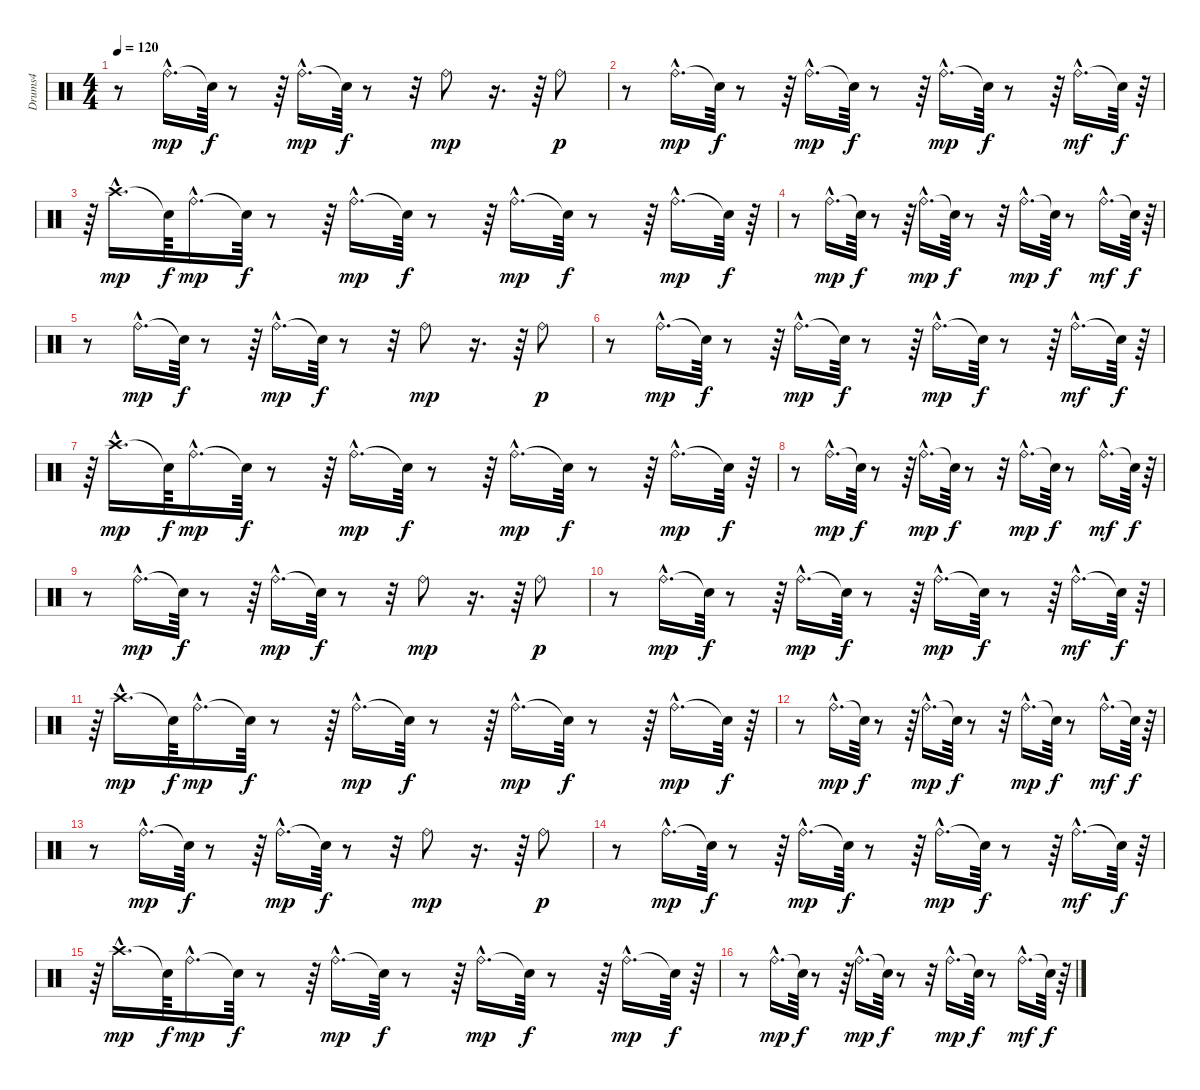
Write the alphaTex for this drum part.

\track ("Drums4" "Drums4") {instrument percussion}
\staff {score}
\articulation defaults
\ts (4 4)
\tempo 120
\clef neutral
\ks c
r.8{dy f} "Ride (bell)"{hac}.16{d dy mp} "Snare (hit)"{t}.64{dy f} r.8 r.64 "Ride (bell)"{hac}.16{d dy mp} "Snare (hit)"{t}.64{dy f} r.8 r.32 "Ride (bell)".8{dy mp} r.16{d} r.64 "Ride (bell)".8{dy p} |
r.8 "Ride (bell)"{hac}.16{d dy mp} "Snare (hit)"{t}.64{dy f} r.8 r.64 "Ride (bell)"{hac}.16{d dy mp} "Snare (hit)"{t}.64{dy f} r.8 r.64 "Ride (bell)"{hac}.16{d dy mp} "Snare (hit)"{t}.64{dy f} r.8 r.64 "Ride (bell)"{hac}.16{d dy mf} "Snare (hit)"{t}.64{dy f} r.64 |
r.64 "Crash high (hit)"{hac}.16{d dy mp} "Snare (hit)"{t}.64{dy f} "Ride (bell)"{hac}.16{d dy mp} "Snare (hit)"{t}.64{dy f} r.8 r.64 "Ride (bell)"{hac}.16{d dy mp} "Snare (hit)"{t}.64{dy f} r.8 r.64 "Ride (bell)"{hac}.16{d dy mp} "Snare (hit)"{t}.64{dy f} r.8 r.64 "Ride (bell)"{hac}.16{d dy mp} "Snare (hit)"{t}.64{dy f} r.64 |
r.8 "Ride (bell)"{hac}.16{d dy mp} "Snare (hit)"{t}.64{dy f} r.8 r.64 "Ride (bell)"{hac}.16{d dy mp} "Snare (hit)"{t}.64{dy f} r.8 r.32 "Ride (bell)"{hac}.16{d dy mp} "Snare (hit)"{t}.64{dy f} r.8 "Ride (bell)"{hac}.16{d dy mf} "Snare (hit)"{t}.64{dy f} r.64 |
r.8 "Ride (bell)"{hac}.16{d dy mp} "Snare (hit)"{t}.64{dy f} r.8 r.64 "Ride (bell)"{hac}.16{d dy mp} "Snare (hit)"{t}.64{dy f} r.8 r.32 "Ride (bell)".8{dy mp} r.16{d} r.64 "Ride (bell)".8{dy p} |
r.8 "Ride (bell)"{hac}.16{d dy mp} "Snare (hit)"{t}.64{dy f} r.8 r.64 "Ride (bell)"{hac}.16{d dy mp} "Snare (hit)"{t}.64{dy f} r.8 r.64 "Ride (bell)"{hac}.16{d dy mp} "Snare (hit)"{t}.64{dy f} r.8 r.64 "Ride (bell)"{hac}.16{d dy mf} "Snare (hit)"{t}.64{dy f} r.64 |
r.64 "Crash high (hit)"{hac}.16{d dy mp} "Snare (hit)"{t}.64{dy f} "Ride (bell)"{hac}.16{d dy mp} "Snare (hit)"{t}.64{dy f} r.8 r.64 "Ride (bell)"{hac}.16{d dy mp} "Snare (hit)"{t}.64{dy f} r.8 r.64 "Ride (bell)"{hac}.16{d dy mp} "Snare (hit)"{t}.64{dy f} r.8 r.64 "Ride (bell)"{hac}.16{d dy mp} "Snare (hit)"{t}.64{dy f} r.64 |
r.8 "Ride (bell)"{hac}.16{d dy mp} "Snare (hit)"{t}.64{dy f} r.8 r.64 "Ride (bell)"{hac}.16{d dy mp} "Snare (hit)"{t}.64{dy f} r.8 r.32 "Ride (bell)"{hac}.16{d dy mp} "Snare (hit)"{t}.64{dy f} r.8 "Ride (bell)"{hac}.16{d dy mf} "Snare (hit)"{t}.64{dy f} r.64 |
r.8 "Ride (bell)"{hac}.16{d dy mp} "Snare (hit)"{t}.64{dy f} r.8 r.64 "Ride (bell)"{hac}.16{d dy mp} "Snare (hit)"{t}.64{dy f} r.8 r.32 "Ride (bell)".8{dy mp} r.16{d} r.64 "Ride (bell)".8{dy p} |
r.8 "Ride (bell)"{hac}.16{d dy mp} "Snare (hit)"{t}.64{dy f} r.8 r.64 "Ride (bell)"{hac}.16{d dy mp} "Snare (hit)"{t}.64{dy f} r.8 r.64 "Ride (bell)"{hac}.16{d dy mp} "Snare (hit)"{t}.64{dy f} r.8 r.64 "Ride (bell)"{hac}.16{d dy mf} "Snare (hit)"{t}.64{dy f} r.64 |
r.64 "Crash high (hit)"{hac}.16{d dy mp} "Snare (hit)"{t}.64{dy f} "Ride (bell)"{hac}.16{d dy mp} "Snare (hit)"{t}.64{dy f} r.8 r.64 "Ride (bell)"{hac}.16{d dy mp} "Snare (hit)"{t}.64{dy f} r.8 r.64 "Ride (bell)"{hac}.16{d dy mp} "Snare (hit)"{t}.64{dy f} r.8 r.64 "Ride (bell)"{hac}.16{d dy mp} "Snare (hit)"{t}.64{dy f} r.64 |
r.8 "Ride (bell)"{hac}.16{d dy mp} "Snare (hit)"{t}.64{dy f} r.8 r.64 "Ride (bell)"{hac}.16{d dy mp} "Snare (hit)"{t}.64{dy f} r.8 r.32 "Ride (bell)"{hac}.16{d dy mp} "Snare (hit)"{t}.64{dy f} r.8 "Ride (bell)"{hac}.16{d dy mf} "Snare (hit)"{t}.64{dy f} r.64 |
r.8 "Ride (bell)"{hac}.16{d dy mp} "Snare (hit)"{t}.64{dy f} r.8 r.64 "Ride (bell)"{hac}.16{d dy mp} "Snare (hit)"{t}.64{dy f} r.8 r.32 "Ride (bell)".8{dy mp} r.16{d} r.64 "Ride (bell)".8{dy p} |
r.8 "Ride (bell)"{hac}.16{d dy mp} "Snare (hit)"{t}.64{dy f} r.8 r.64 "Ride (bell)"{hac}.16{d dy mp} "Snare (hit)"{t}.64{dy f} r.8 r.64 "Ride (bell)"{hac}.16{d dy mp} "Snare (hit)"{t}.64{dy f} r.8 r.64 "Ride (bell)"{hac}.16{d dy mf} "Snare (hit)"{t}.64{dy f} r.64 |
r.64 "Crash high (hit)"{hac}.16{d dy mp} "Snare (hit)"{t}.64{dy f} "Ride (bell)"{hac}.16{d dy mp} "Snare (hit)"{t}.64{dy f} r.8 r.64 "Ride (bell)"{hac}.16{d dy mp} "Snare (hit)"{t}.64{dy f} r.8 r.64 "Ride (bell)"{hac}.16{d dy mp} "Snare (hit)"{t}.64{dy f} r.8 r.64 "Ride (bell)"{hac}.16{d dy mp} "Snare (hit)"{t}.64{dy f} r.64 |
r.8 "Ride (bell)"{hac}.16{d dy mp} "Snare (hit)"{t}.64{dy f} r.8 r.64 "Ride (bell)"{hac}.16{d dy mp} "Snare (hit)"{t}.64{dy f} r.8 r.32 "Ride (bell)"{hac}.16{d dy mp} "Snare (hit)"{t}.64{dy f} r.8 "Ride (bell)"{hac}.16{d dy mf} "Snare (hit)"{t}.64{dy f} r.64
